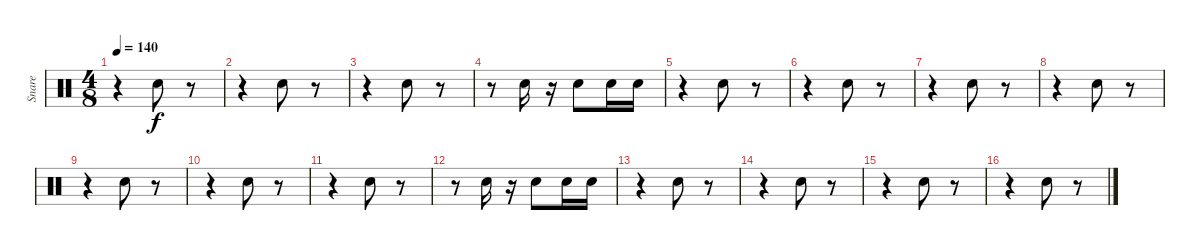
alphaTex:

\track ("Snare" "Snare") {instrument percussion}
\staff {score}
\articulation defaults
\ts (4 8)
\tempo 140
\clef neutral
\ks c
r.4{dy f} "Snare (hit) 2".8 r.8 |
r.4 "Snare (hit) 2".8 r.8 |
r.4 "Snare (hit) 2".8 r.8 |
r.8 "Snare (hit) 2".16 r.16 "Snare (hit) 2".8 "Snare (hit) 2".16 "Snare (hit) 2".16 |
r.4 "Snare (hit) 2".8 r.8 |
r.4 "Snare (hit) 2".8 r.8 |
r.4 "Snare (hit) 2".8 r.8 |
r.4 "Snare (hit) 2".8 r.8 |
r.4 "Snare (hit) 2".8 r.8 |
r.4 "Snare (hit) 2".8 r.8 |
r.4 "Snare (hit) 2".8 r.8 |
r.8 "Snare (hit) 2".16 r.16 "Snare (hit) 2".8 "Snare (hit) 2".16 "Snare (hit) 2".16 |
r.4 "Snare (hit) 2".8 r.8 |
r.4 "Snare (hit) 2".8 r.8 |
r.4 "Snare (hit) 2".8 r.8 |
r.4 "Snare (hit) 2".8 r.8
